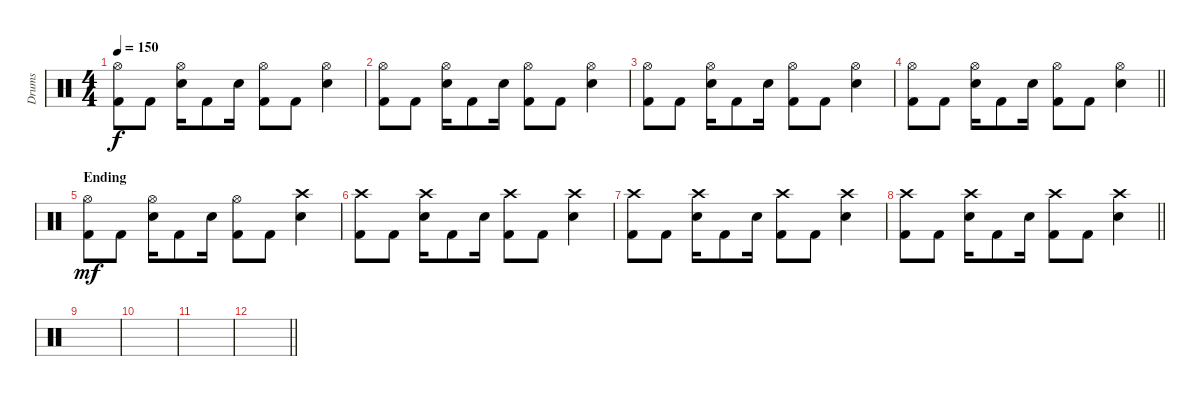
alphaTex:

\track ("Drums" "Drums") {instrument percussion}
\staff {score}
\articulation defaults
\ts (4 4)
\tempo 150
\clef neutral
\ks c
("Hi-Hat (open)" "Kick (hit) 2").8{dy f} "Kick (hit) 2".8 ("Hi-Hat (open)" "Electric Snare (hit)").16 "Kick (hit) 2".8 "Electric Snare (hit)".16 ("Hi-Hat (open)" "Kick (hit) 2").8 "Kick (hit) 2".8 ("Hi-Hat (open)" "Electric Snare (hit)").4 |
("Hi-Hat (open)" "Kick (hit) 2").8 "Kick (hit) 2".8 ("Hi-Hat (open)" "Electric Snare (hit)").16 "Kick (hit) 2".8 "Electric Snare (hit)".16 ("Hi-Hat (open)" "Kick (hit) 2").8 "Kick (hit) 2".8 ("Hi-Hat (open)" "Electric Snare (hit)").4 |
("Hi-Hat (open)" "Kick (hit) 2").8 "Kick (hit) 2".8 ("Hi-Hat (open)" "Electric Snare (hit)").16 "Kick (hit) 2".8 "Electric Snare (hit)".16 ("Hi-Hat (open)" "Kick (hit) 2").8 "Kick (hit) 2".8 ("Hi-Hat (open)" "Electric Snare (hit)").4 |
\barLineRight lightlight
("Hi-Hat (open)" "Kick (hit) 2").8 "Kick (hit) 2".8 ("Hi-Hat (open)" "Electric Snare (hit)").16 "Kick (hit) 2".8 "Electric Snare (hit)".16 ("Hi-Hat (open)" "Kick (hit) 2").8 "Kick (hit) 2".8 ("Hi-Hat (open)" "Electric Snare (hit)").4 |
\section ("" "Ending")
("Hi-Hat (open)" "Kick (hit) 2").8{dy mf volume 0} "Kick (hit) 2".8 ("Hi-Hat (open)" "Electric Snare (hit)").16 "Kick (hit) 2".8 "Electric Snare (hit)".16 ("Hi-Hat (open)" "Kick (hit) 2").8 "Kick (hit) 2".8 ("Crash high (hit)" "Electric Snare (hit)").4 |
("Crash high (hit)" "Kick (hit) 2").8 "Kick (hit) 2".8 ("Crash high (hit)" "Electric Snare (hit)").16 "Kick (hit) 2".8 "Electric Snare (hit)".16 ("Crash high (hit)" "Kick (hit) 2").8 "Kick (hit) 2".8 ("Crash high (hit)" "Electric Snare (hit)").4 |
("Crash high (hit)" "Kick (hit) 2").8 "Kick (hit) 2".8 ("Crash high (hit)" "Electric Snare (hit)").16 "Kick (hit) 2".8 "Electric Snare (hit)".16 ("Crash high (hit)" "Kick (hit) 2").8 "Kick (hit) 2".8 ("Crash high (hit)" "Electric Snare (hit)").4 |
\barLineRight lightlight
("Crash high (hit)" "Kick (hit) 2").8 "Kick (hit) 2".8 ("Crash high (hit)" "Electric Snare (hit)").16 "Kick (hit) 2".8 "Electric Snare (hit)".16 ("Crash high (hit)" "Kick (hit) 2").8 "Kick (hit) 2".8 ("Crash high (hit)" "Electric Snare (hit)").4 |
|
|
|
\barLineRight lightlight
